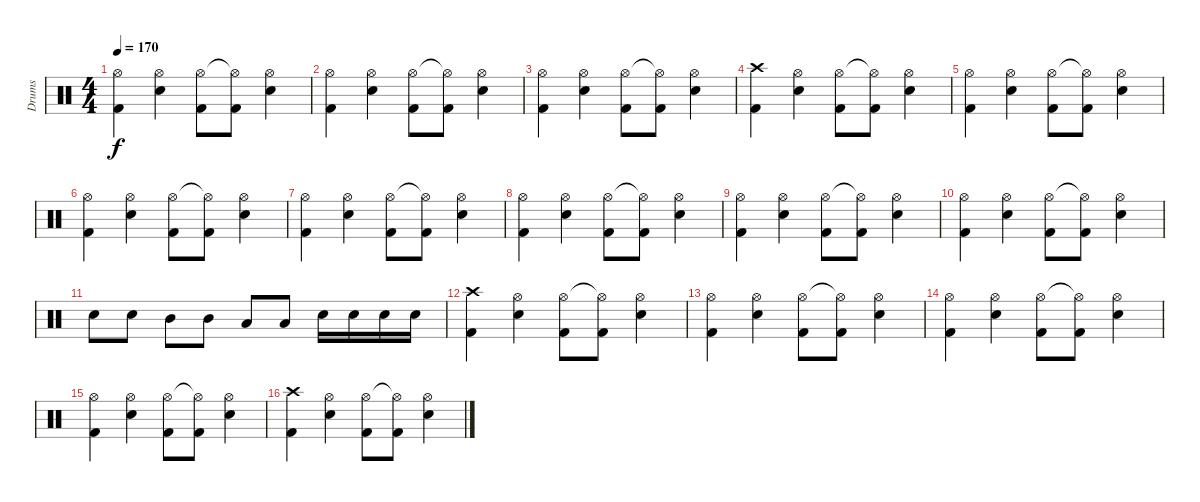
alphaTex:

\track ("Drums" "Drums") {instrument percussion}
\staff {score}
\articulation defaults
\ts (4 4)
\tempo 170
\clef neutral
\ks c
("Hi-Hat (open)" "Kick (hit) 2").4{dy f} ("Hi-Hat (open)" "Snare (hit) 2").4 ("Hi-Hat (open)" "Kick (hit) 2").8 ("Hi-Hat (open)"{t} "Kick (hit) 2").8 ("Hi-Hat (open)" "Snare (hit) 2").4 |
("Hi-Hat (open)" "Kick (hit) 2").4 ("Hi-Hat (open)" "Snare (hit) 2").4 ("Hi-Hat (open)" "Kick (hit) 2").8 ("Hi-Hat (open)"{t} "Kick (hit) 2").8 ("Hi-Hat (open)" "Snare (hit) 2").4 |
("Hi-Hat (open)" "Kick (hit) 2").4 ("Hi-Hat (open)" "Snare (hit) 2").4 ("Hi-Hat (open)" "Kick (hit) 2").8 ("Hi-Hat (open)"{t} "Kick (hit) 2").8 ("Hi-Hat (open)" "Snare (hit) 2").4 |
("Crash high (hit)" "Kick (hit) 2").4 ("Hi-Hat (open)" "Snare (hit) 2").4 ("Hi-Hat (open)" "Kick (hit) 2").8 ("Hi-Hat (open)"{t} "Kick (hit) 2").8 ("Hi-Hat (open)" "Snare (hit) 2").4 |
("Hi-Hat (open)" "Kick (hit) 2").4 ("Hi-Hat (open)" "Snare (hit) 2").4 ("Hi-Hat (open)" "Kick (hit) 2").8 ("Hi-Hat (open)"{t} "Kick (hit) 2").8 ("Hi-Hat (open)" "Snare (hit) 2").4 |
("Hi-Hat (open)" "Kick (hit) 2").4 ("Hi-Hat (open)" "Snare (hit) 2").4 ("Hi-Hat (open)" "Kick (hit) 2").8 ("Hi-Hat (open)"{t} "Kick (hit) 2").8 ("Hi-Hat (open)" "Snare (hit) 2").4 |
("Hi-Hat (open)" "Kick (hit) 2").4 ("Hi-Hat (open)" "Snare (hit) 2").4 ("Hi-Hat (open)" "Kick (hit) 2").8 ("Hi-Hat (open)"{t} "Kick (hit) 2").8 ("Hi-Hat (open)" "Snare (hit) 2").4 |
("Hi-Hat (open)" "Kick (hit) 2").4 ("Hi-Hat (open)" "Snare (hit) 2").4 ("Hi-Hat (open)" "Kick (hit) 2").8 ("Hi-Hat (open)"{t} "Kick (hit) 2").8 ("Hi-Hat (open)" "Snare (hit) 2").4 |
("Hi-Hat (open)" "Kick (hit) 2").4 ("Hi-Hat (open)" "Snare (hit) 2").4 ("Hi-Hat (open)" "Kick (hit) 2").8 ("Hi-Hat (open)"{t} "Kick (hit) 2").8 ("Hi-Hat (open)" "Snare (hit) 2").4 |
("Hi-Hat (open)" "Kick (hit) 2").4 ("Hi-Hat (open)" "Snare (hit) 2").4 ("Hi-Hat (open)" "Kick (hit) 2").8 ("Hi-Hat (open)"{t} "Kick (hit) 2").8 ("Hi-Hat (open)" "Snare (hit) 2").4 |
"Snare (hit) 2".8 "Snare (hit) 2".8 "Mid Tom (hit)".8 "Mid Tom (hit)".8 "Low Tom (hit)".8 "Low Tom (hit)".8 "Snare (hit) 2".16 "Snare (hit) 2".16 "Snare (hit) 2".16 "Snare (hit) 2".16 |
("Crash high (hit)" "Kick (hit) 2").4 ("Hi-Hat (open)" "Snare (hit) 2").4 ("Hi-Hat (open)" "Kick (hit) 2").8 ("Hi-Hat (open)"{t} "Kick (hit) 2").8 ("Hi-Hat (open)" "Snare (hit) 2").4 |
("Hi-Hat (open)" "Kick (hit) 2").4 ("Hi-Hat (open)" "Snare (hit) 2").4 ("Hi-Hat (open)" "Kick (hit) 2").8 ("Hi-Hat (open)"{t} "Kick (hit) 2").8 ("Hi-Hat (open)" "Snare (hit) 2").4 |
("Hi-Hat (open)" "Kick (hit) 2").4 ("Hi-Hat (open)" "Snare (hit) 2").4 ("Hi-Hat (open)" "Kick (hit) 2").8 ("Hi-Hat (open)"{t} "Kick (hit) 2").8 ("Hi-Hat (open)" "Snare (hit) 2").4 |
("Hi-Hat (open)" "Kick (hit) 2").4 ("Hi-Hat (open)" "Snare (hit) 2").4 ("Hi-Hat (open)" "Kick (hit) 2").8 ("Hi-Hat (open)"{t} "Kick (hit) 2").8 ("Hi-Hat (open)" "Snare (hit) 2").4 |
("Crash high (hit)" "Kick (hit) 2").4 ("Hi-Hat (open)" "Snare (hit) 2").4 ("Hi-Hat (open)" "Kick (hit) 2").8 ("Hi-Hat (open)"{t} "Kick (hit) 2").8 ("Hi-Hat (open)" "Snare (hit) 2").4
